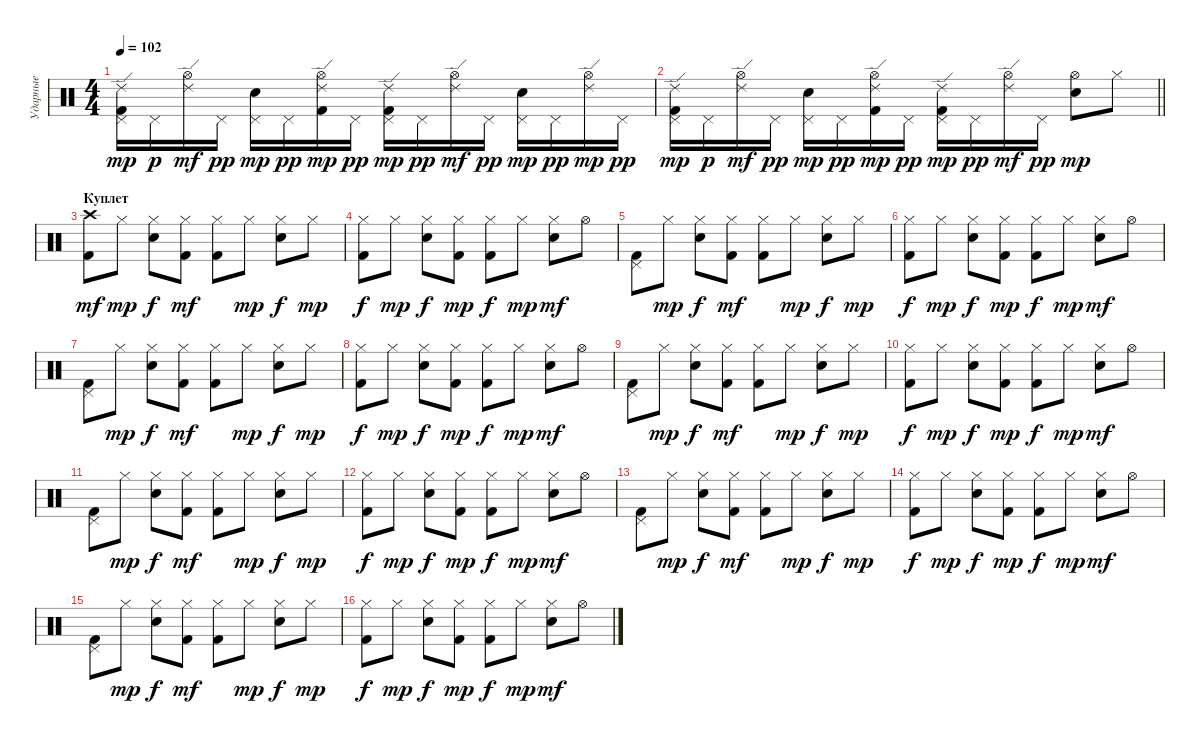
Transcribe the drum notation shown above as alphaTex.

\track ("Ударные" "Ударные") {instrument percussion}
\staff {score}
\articulation defaults
\ts (4 4)
\tempo 102
\clef neutral
\ks c
("Pedal Hi-Hat (hit)" "Ride (edge) 2" "Kick (hit) 2").16{dy mp} "Pedal Hi-Hat (hit)".16{dy p} ("Hi-Hat (open)" "Ride (edge) 2").16{dy mf} "Pedal Hi-Hat (hit)".16{dy pp} ("Pedal Hi-Hat (hit)" "Snare (hit) 2").16{dy mp} "Pedal Hi-Hat (hit)".16{dy pp} ("Hi-Hat (open)" "Ride (edge) 2" "Kick (hit) 2").16{dy mp} "Pedal Hi-Hat (hit)".16{dy pp} ("Pedal Hi-Hat (hit)" "Ride (edge) 2" "Kick (hit) 2").16{dy mp} "Pedal Hi-Hat (hit)".16{dy pp} ("Hi-Hat (open)" "Ride (edge) 2").16{dy mf} "Pedal Hi-Hat (hit)".16{dy pp} ("Pedal Hi-Hat (hit)" "Snare (hit) 2").16{dy mp} "Pedal Hi-Hat (hit)".16{dy pp} ("Hi-Hat (open)" "Ride (edge) 2").16{dy mp} "Pedal Hi-Hat (hit)".16{dy pp} |
\barLineRight lightlight
("Pedal Hi-Hat (hit)" "Ride (edge) 2" "Kick (hit) 2").16{dy mp} "Pedal Hi-Hat (hit)".16{dy p} ("Hi-Hat (open)" "Ride (edge) 2").16{dy mf} "Pedal Hi-Hat (hit)".16{dy pp} ("Pedal Hi-Hat (hit)" "Snare (hit) 2").16{dy mp} "Pedal Hi-Hat (hit)".16{dy pp} ("Hi-Hat (open)" "Ride (edge) 2" "Kick (hit) 2").16{dy mp} "Pedal Hi-Hat (hit)".16{dy pp} ("Pedal Hi-Hat (hit)" "Ride (edge) 2" "Kick (hit) 2").16{dy mp} "Pedal Hi-Hat (hit)".16{dy pp} ("Hi-Hat (open)" "Ride (edge) 2").16{dy mf} "Pedal Hi-Hat (hit)".16{dy pp} ("Hi-Hat (open)" "Snare (hit) 2").8{dy mp} "Hi-Hat (closed)".8 |
\section ("" "Куплет")
("Crash high (hit)" "Kick (hit) 2").8{dy mf} "Hi-Hat (closed)".8{dy mp} ("Hi-Hat (closed)" "Snare (hit) 2").8{dy f} ("Hi-Hat (closed)" "Kick (hit) 2").8{dy mf} ("Hi-Hat (closed)" "Kick (hit) 2").8 "Hi-Hat (closed)".8{dy mp} ("Hi-Hat (closed)" "Snare (hit) 2").8{dy f} "Hi-Hat (closed)".8{dy mp} |
("Hi-Hat (closed)" "Kick (hit) 2").8{dy f} "Hi-Hat (closed)".8{dy mp} ("Hi-Hat (closed)" "Snare (hit) 2").8{dy f} ("Hi-Hat (closed)" "Kick (hit) 2").8{dy mp} ("Hi-Hat (closed)" "Kick (hit) 2").8{dy f} "Hi-Hat (closed)".8{dy mp} ("Hi-Hat (closed)" "Snare (hit) 2").8{dy mf} "Hi-Hat (open)".8 |
("Pedal Hi-Hat (hit)" "Kick (hit) 2").8 "Hi-Hat (closed)".8{dy mp} ("Hi-Hat (closed)" "Snare (hit) 2").8{dy f} ("Hi-Hat (closed)" "Kick (hit) 2").8{dy mf} ("Hi-Hat (closed)" "Kick (hit) 2").8 "Hi-Hat (closed)".8{dy mp} ("Hi-Hat (closed)" "Snare (hit) 2").8{dy f} "Hi-Hat (closed)".8{dy mp} |
("Hi-Hat (closed)" "Kick (hit) 2").8{dy f} "Hi-Hat (closed)".8{dy mp} ("Hi-Hat (closed)" "Snare (hit) 2").8{dy f} ("Hi-Hat (closed)" "Kick (hit) 2").8{dy mp} ("Hi-Hat (closed)" "Kick (hit) 2").8{dy f} "Hi-Hat (closed)".8{dy mp} ("Hi-Hat (closed)" "Snare (hit) 2").8{dy mf} "Hi-Hat (open)".8 |
("Pedal Hi-Hat (hit)" "Kick (hit) 2").8 "Hi-Hat (closed)".8{dy mp} ("Hi-Hat (closed)" "Snare (hit) 2").8{dy f} ("Hi-Hat (closed)" "Kick (hit) 2").8{dy mf} ("Hi-Hat (closed)" "Kick (hit) 2").8 "Hi-Hat (closed)".8{dy mp} ("Hi-Hat (closed)" "Snare (hit) 2").8{dy f} "Hi-Hat (closed)".8{dy mp} |
("Hi-Hat (closed)" "Kick (hit) 2").8{dy f} "Hi-Hat (closed)".8{dy mp} ("Hi-Hat (closed)" "Snare (hit) 2").8{dy f} ("Hi-Hat (closed)" "Kick (hit) 2").8{dy mp} ("Hi-Hat (closed)" "Kick (hit) 2").8{dy f} "Hi-Hat (closed)".8{dy mp} ("Hi-Hat (closed)" "Snare (hit) 2").8{dy mf} "Hi-Hat (open)".8 |
("Pedal Hi-Hat (hit)" "Kick (hit) 2").8 "Hi-Hat (closed)".8{dy mp} ("Hi-Hat (closed)" "Snare (hit) 2").8{dy f} ("Hi-Hat (closed)" "Kick (hit) 2").8{dy mf} ("Hi-Hat (closed)" "Kick (hit) 2").8 "Hi-Hat (closed)".8{dy mp} ("Hi-Hat (closed)" "Snare (hit) 2").8{dy f} "Hi-Hat (closed)".8{dy mp} |
("Hi-Hat (closed)" "Kick (hit) 2").8{dy f} "Hi-Hat (closed)".8{dy mp} ("Hi-Hat (closed)" "Snare (hit) 2").8{dy f} ("Hi-Hat (closed)" "Kick (hit) 2").8{dy mp} ("Hi-Hat (closed)" "Kick (hit) 2").8{dy f} "Hi-Hat (closed)".8{dy mp} ("Hi-Hat (closed)" "Snare (hit) 2").8{dy mf} "Hi-Hat (open)".8 |
("Pedal Hi-Hat (hit)" "Kick (hit) 2").8 "Hi-Hat (closed)".8{dy mp} ("Hi-Hat (closed)" "Snare (hit) 2").8{dy f} ("Hi-Hat (closed)" "Kick (hit) 2").8{dy mf} ("Hi-Hat (closed)" "Kick (hit) 2").8 "Hi-Hat (closed)".8{dy mp} ("Hi-Hat (closed)" "Snare (hit) 2").8{dy f} "Hi-Hat (closed)".8{dy mp} |
("Hi-Hat (closed)" "Kick (hit) 2").8{dy f} "Hi-Hat (closed)".8{dy mp} ("Hi-Hat (closed)" "Snare (hit) 2").8{dy f} ("Hi-Hat (closed)" "Kick (hit) 2").8{dy mp} ("Hi-Hat (closed)" "Kick (hit) 2").8{dy f} "Hi-Hat (closed)".8{dy mp} ("Hi-Hat (closed)" "Snare (hit) 2").8{dy mf} "Hi-Hat (open)".8 |
("Pedal Hi-Hat (hit)" "Kick (hit) 2").8 "Hi-Hat (closed)".8{dy mp} ("Hi-Hat (closed)" "Snare (hit) 2").8{dy f} ("Hi-Hat (closed)" "Kick (hit) 2").8{dy mf} ("Hi-Hat (closed)" "Kick (hit) 2").8 "Hi-Hat (closed)".8{dy mp} ("Hi-Hat (closed)" "Snare (hit) 2").8{dy f} "Hi-Hat (closed)".8{dy mp} |
("Hi-Hat (closed)" "Kick (hit) 2").8{dy f} "Hi-Hat (closed)".8{dy mp} ("Hi-Hat (closed)" "Snare (hit) 2").8{dy f} ("Hi-Hat (closed)" "Kick (hit) 2").8{dy mp} ("Hi-Hat (closed)" "Kick (hit) 2").8{dy f} "Hi-Hat (closed)".8{dy mp} ("Hi-Hat (closed)" "Snare (hit) 2").8{dy mf} "Hi-Hat (open)".8 |
("Pedal Hi-Hat (hit)" "Kick (hit) 2").8 "Hi-Hat (closed)".8{dy mp} ("Hi-Hat (closed)" "Snare (hit) 2").8{dy f} ("Hi-Hat (closed)" "Kick (hit) 2").8{dy mf} ("Hi-Hat (closed)" "Kick (hit) 2").8 "Hi-Hat (closed)".8{dy mp} ("Hi-Hat (closed)" "Snare (hit) 2").8{dy f} "Hi-Hat (closed)".8{dy mp} |
("Hi-Hat (closed)" "Kick (hit) 2").8{dy f} "Hi-Hat (closed)".8{dy mp} ("Hi-Hat (closed)" "Snare (hit) 2").8{dy f} ("Hi-Hat (closed)" "Kick (hit) 2").8{dy mp} ("Hi-Hat (closed)" "Kick (hit) 2").8{dy f} "Hi-Hat (closed)".8{dy mp} ("Hi-Hat (closed)" "Snare (hit) 2").8{dy mf} "Hi-Hat (open)".8
